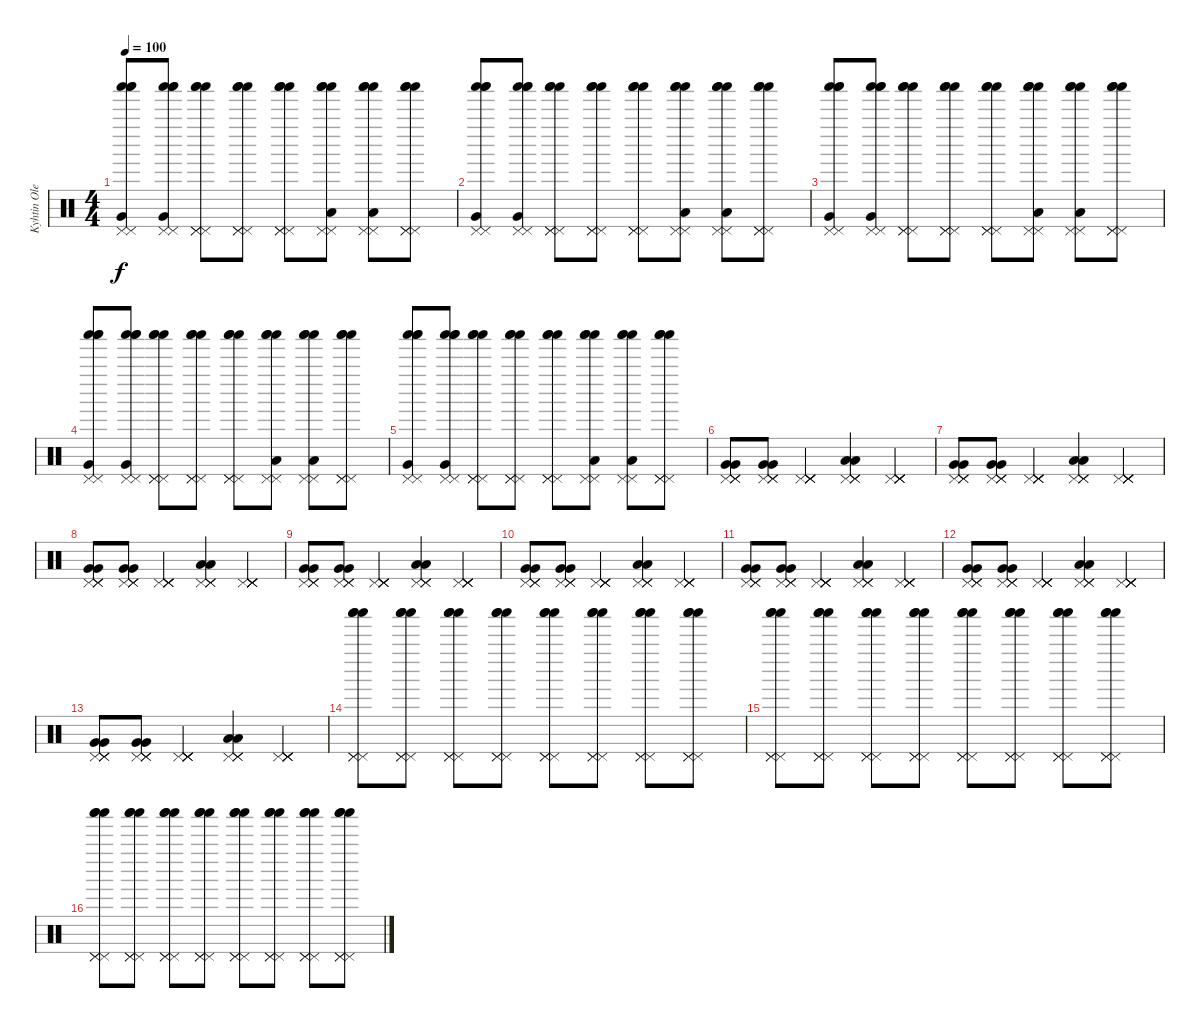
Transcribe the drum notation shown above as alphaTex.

\track ("Kyhtin Oleksandr" "Kyhtin Ole") {instrument percussion}
\staff {score}
\articulation defaults
\ts (4 4)
\tempo 100
\clef neutral
\ks c
("Pedal Hi-Hat (hit)" "Shaker (hit)" "Pedal Hi-Hat (hit)" "Shaker (hit)" "Very Low Tom (hit)" "Shaker (hit)").8{dy f} ("Pedal Hi-Hat (hit)" "Shaker (hit)" "Pedal Hi-Hat (hit)" "Shaker (hit)" "Very Low Tom (hit)" "Shaker (hit)").8 ("Pedal Hi-Hat (hit)" "Shaker (hit)" "Pedal Hi-Hat (hit)" "Shaker (hit)" "Pedal Hi-Hat (hit)" "Shaker (hit)").8 ("Pedal Hi-Hat (hit)" "Shaker (hit)" "Pedal Hi-Hat (hit)" "Shaker (hit)" "Pedal Hi-Hat (hit)" "Shaker (hit)").8 ("Pedal Hi-Hat (hit)" "Shaker (hit)" "Pedal Hi-Hat (hit)" "Shaker (hit)" "Pedal Hi-Hat (hit)" "Shaker (hit)").8 ("Pedal Hi-Hat (hit)" "Shaker (hit)" "Pedal Hi-Hat (hit)" "Shaker (hit)" "Low Floor Tom (hit)" "Shaker (hit)").8 ("Pedal Hi-Hat (hit)" "Shaker (hit)" "Pedal Hi-Hat (hit)" "Shaker (hit)" "Low Floor Tom (hit)" "Shaker (hit)").8 ("Pedal Hi-Hat (hit)" "Shaker (hit)" "Pedal Hi-Hat (hit)" "Shaker (hit)" "Pedal Hi-Hat (hit)" "Shaker (hit)").8 |
("Pedal Hi-Hat (hit)" "Shaker (hit)" "Pedal Hi-Hat (hit)" "Shaker (hit)" "Very Low Tom (hit)" "Shaker (hit)").8 ("Pedal Hi-Hat (hit)" "Shaker (hit)" "Pedal Hi-Hat (hit)" "Shaker (hit)" "Very Low Tom (hit)" "Shaker (hit)").8 ("Pedal Hi-Hat (hit)" "Shaker (hit)" "Pedal Hi-Hat (hit)" "Shaker (hit)" "Pedal Hi-Hat (hit)" "Shaker (hit)").8 ("Pedal Hi-Hat (hit)" "Shaker (hit)" "Pedal Hi-Hat (hit)" "Shaker (hit)" "Pedal Hi-Hat (hit)" "Shaker (hit)").8 ("Pedal Hi-Hat (hit)" "Shaker (hit)" "Pedal Hi-Hat (hit)" "Shaker (hit)" "Pedal Hi-Hat (hit)" "Shaker (hit)").8 ("Pedal Hi-Hat (hit)" "Shaker (hit)" "Pedal Hi-Hat (hit)" "Shaker (hit)" "Low Floor Tom (hit)" "Shaker (hit)").8 ("Pedal Hi-Hat (hit)" "Shaker (hit)" "Pedal Hi-Hat (hit)" "Shaker (hit)" "Low Floor Tom (hit)" "Shaker (hit)").8 ("Pedal Hi-Hat (hit)" "Shaker (hit)" "Pedal Hi-Hat (hit)" "Shaker (hit)" "Pedal Hi-Hat (hit)" "Shaker (hit)").8 |
("Pedal Hi-Hat (hit)" "Shaker (hit)" "Pedal Hi-Hat (hit)" "Shaker (hit)" "Very Low Tom (hit)" "Shaker (hit)").8 ("Pedal Hi-Hat (hit)" "Shaker (hit)" "Pedal Hi-Hat (hit)" "Shaker (hit)" "Very Low Tom (hit)" "Shaker (hit)").8 ("Pedal Hi-Hat (hit)" "Shaker (hit)" "Pedal Hi-Hat (hit)" "Shaker (hit)" "Pedal Hi-Hat (hit)" "Shaker (hit)").8 ("Pedal Hi-Hat (hit)" "Shaker (hit)" "Pedal Hi-Hat (hit)" "Shaker (hit)" "Pedal Hi-Hat (hit)" "Shaker (hit)").8 ("Pedal Hi-Hat (hit)" "Shaker (hit)" "Pedal Hi-Hat (hit)" "Shaker (hit)" "Pedal Hi-Hat (hit)" "Shaker (hit)").8 ("Pedal Hi-Hat (hit)" "Shaker (hit)" "Pedal Hi-Hat (hit)" "Shaker (hit)" "Low Floor Tom (hit)" "Shaker (hit)").8 ("Pedal Hi-Hat (hit)" "Shaker (hit)" "Pedal Hi-Hat (hit)" "Shaker (hit)" "Low Floor Tom (hit)" "Shaker (hit)").8 ("Pedal Hi-Hat (hit)" "Shaker (hit)" "Pedal Hi-Hat (hit)" "Shaker (hit)" "Pedal Hi-Hat (hit)" "Shaker (hit)").8 |
("Pedal Hi-Hat (hit)" "Shaker (hit)" "Pedal Hi-Hat (hit)" "Shaker (hit)" "Very Low Tom (hit)" "Shaker (hit)").8 ("Pedal Hi-Hat (hit)" "Shaker (hit)" "Pedal Hi-Hat (hit)" "Shaker (hit)" "Very Low Tom (hit)" "Shaker (hit)").8 ("Pedal Hi-Hat (hit)" "Shaker (hit)" "Pedal Hi-Hat (hit)" "Shaker (hit)" "Pedal Hi-Hat (hit)" "Shaker (hit)").8 ("Pedal Hi-Hat (hit)" "Shaker (hit)" "Pedal Hi-Hat (hit)" "Shaker (hit)" "Pedal Hi-Hat (hit)" "Shaker (hit)").8 ("Pedal Hi-Hat (hit)" "Shaker (hit)" "Pedal Hi-Hat (hit)" "Shaker (hit)" "Pedal Hi-Hat (hit)" "Shaker (hit)").8 ("Pedal Hi-Hat (hit)" "Shaker (hit)" "Pedal Hi-Hat (hit)" "Shaker (hit)" "Low Floor Tom (hit)" "Shaker (hit)").8 ("Pedal Hi-Hat (hit)" "Shaker (hit)" "Pedal Hi-Hat (hit)" "Shaker (hit)" "Low Floor Tom (hit)" "Shaker (hit)").8 ("Pedal Hi-Hat (hit)" "Shaker (hit)" "Pedal Hi-Hat (hit)" "Shaker (hit)" "Pedal Hi-Hat (hit)" "Shaker (hit)").8 |
("Pedal Hi-Hat (hit)" "Shaker (hit)" "Pedal Hi-Hat (hit)" "Shaker (hit)" "Very Low Tom (hit)" "Shaker (hit)").8 ("Pedal Hi-Hat (hit)" "Shaker (hit)" "Pedal Hi-Hat (hit)" "Shaker (hit)" "Very Low Tom (hit)" "Shaker (hit)").8 ("Pedal Hi-Hat (hit)" "Shaker (hit)" "Pedal Hi-Hat (hit)" "Shaker (hit)" "Pedal Hi-Hat (hit)" "Shaker (hit)").8 ("Pedal Hi-Hat (hit)" "Shaker (hit)" "Pedal Hi-Hat (hit)" "Shaker (hit)" "Pedal Hi-Hat (hit)" "Shaker (hit)").8 ("Pedal Hi-Hat (hit)" "Shaker (hit)" "Pedal Hi-Hat (hit)" "Shaker (hit)" "Pedal Hi-Hat (hit)" "Shaker (hit)").8 ("Pedal Hi-Hat (hit)" "Shaker (hit)" "Pedal Hi-Hat (hit)" "Shaker (hit)" "Low Floor Tom (hit)" "Shaker (hit)").8 ("Pedal Hi-Hat (hit)" "Shaker (hit)" "Pedal Hi-Hat (hit)" "Shaker (hit)" "Low Floor Tom (hit)" "Shaker (hit)").8 ("Pedal Hi-Hat (hit)" "Shaker (hit)" "Pedal Hi-Hat (hit)" "Shaker (hit)" "Pedal Hi-Hat (hit)" "Shaker (hit)").8 |
("Pedal Hi-Hat (hit)" "Pedal Hi-Hat (hit)" "Pedal Hi-Hat (hit)" "Pedal Hi-Hat (hit)" "Very Low Tom (hit)" "Very Low Tom (hit)").8 ("Pedal Hi-Hat (hit)" "Pedal Hi-Hat (hit)" "Pedal Hi-Hat (hit)" "Pedal Hi-Hat (hit)" "Very Low Tom (hit)" "Very Low Tom (hit)").8 ("Pedal Hi-Hat (hit)" "Pedal Hi-Hat (hit)" "Pedal Hi-Hat (hit)" "Pedal Hi-Hat (hit)" "Pedal Hi-Hat (hit)" "Pedal Hi-Hat (hit)").4 ("Pedal Hi-Hat (hit)" "Pedal Hi-Hat (hit)" "Pedal Hi-Hat (hit)" "Pedal Hi-Hat (hit)" "Low Floor Tom (hit)" "Low Floor Tom (hit)").4 ("Pedal Hi-Hat (hit)" "Pedal Hi-Hat (hit)" "Pedal Hi-Hat (hit)" "Pedal Hi-Hat (hit)" "Pedal Hi-Hat (hit)" "Pedal Hi-Hat (hit)").4 |
("Pedal Hi-Hat (hit)" "Pedal Hi-Hat (hit)" "Pedal Hi-Hat (hit)" "Pedal Hi-Hat (hit)" "Very Low Tom (hit)" "Very Low Tom (hit)").8 ("Pedal Hi-Hat (hit)" "Pedal Hi-Hat (hit)" "Pedal Hi-Hat (hit)" "Pedal Hi-Hat (hit)" "Very Low Tom (hit)" "Very Low Tom (hit)").8 ("Pedal Hi-Hat (hit)" "Pedal Hi-Hat (hit)" "Pedal Hi-Hat (hit)" "Pedal Hi-Hat (hit)" "Pedal Hi-Hat (hit)" "Pedal Hi-Hat (hit)").4 ("Pedal Hi-Hat (hit)" "Pedal Hi-Hat (hit)" "Pedal Hi-Hat (hit)" "Pedal Hi-Hat (hit)" "Low Floor Tom (hit)" "Low Floor Tom (hit)").4 ("Pedal Hi-Hat (hit)" "Pedal Hi-Hat (hit)" "Pedal Hi-Hat (hit)" "Pedal Hi-Hat (hit)" "Pedal Hi-Hat (hit)" "Pedal Hi-Hat (hit)").4 |
("Pedal Hi-Hat (hit)" "Pedal Hi-Hat (hit)" "Pedal Hi-Hat (hit)" "Pedal Hi-Hat (hit)" "Very Low Tom (hit)" "Very Low Tom (hit)").8 ("Pedal Hi-Hat (hit)" "Pedal Hi-Hat (hit)" "Pedal Hi-Hat (hit)" "Pedal Hi-Hat (hit)" "Very Low Tom (hit)" "Very Low Tom (hit)").8 ("Pedal Hi-Hat (hit)" "Pedal Hi-Hat (hit)" "Pedal Hi-Hat (hit)" "Pedal Hi-Hat (hit)" "Pedal Hi-Hat (hit)" "Pedal Hi-Hat (hit)").4 ("Pedal Hi-Hat (hit)" "Pedal Hi-Hat (hit)" "Pedal Hi-Hat (hit)" "Pedal Hi-Hat (hit)" "Low Floor Tom (hit)" "Low Floor Tom (hit)").4 ("Pedal Hi-Hat (hit)" "Pedal Hi-Hat (hit)" "Pedal Hi-Hat (hit)" "Pedal Hi-Hat (hit)" "Pedal Hi-Hat (hit)" "Pedal Hi-Hat (hit)").4 |
("Pedal Hi-Hat (hit)" "Pedal Hi-Hat (hit)" "Pedal Hi-Hat (hit)" "Pedal Hi-Hat (hit)" "Very Low Tom (hit)" "Very Low Tom (hit)").8 ("Pedal Hi-Hat (hit)" "Pedal Hi-Hat (hit)" "Pedal Hi-Hat (hit)" "Pedal Hi-Hat (hit)" "Very Low Tom (hit)" "Very Low Tom (hit)").8 ("Pedal Hi-Hat (hit)" "Pedal Hi-Hat (hit)" "Pedal Hi-Hat (hit)" "Pedal Hi-Hat (hit)" "Pedal Hi-Hat (hit)" "Pedal Hi-Hat (hit)").4 ("Pedal Hi-Hat (hit)" "Pedal Hi-Hat (hit)" "Pedal Hi-Hat (hit)" "Pedal Hi-Hat (hit)" "Low Floor Tom (hit)" "Low Floor Tom (hit)").4 ("Pedal Hi-Hat (hit)" "Pedal Hi-Hat (hit)" "Pedal Hi-Hat (hit)" "Pedal Hi-Hat (hit)" "Pedal Hi-Hat (hit)" "Pedal Hi-Hat (hit)").4 |
("Pedal Hi-Hat (hit)" "Pedal Hi-Hat (hit)" "Pedal Hi-Hat (hit)" "Pedal Hi-Hat (hit)" "Very Low Tom (hit)" "Very Low Tom (hit)").8 ("Pedal Hi-Hat (hit)" "Pedal Hi-Hat (hit)" "Pedal Hi-Hat (hit)" "Pedal Hi-Hat (hit)" "Very Low Tom (hit)" "Very Low Tom (hit)").8 ("Pedal Hi-Hat (hit)" "Pedal Hi-Hat (hit)" "Pedal Hi-Hat (hit)" "Pedal Hi-Hat (hit)" "Pedal Hi-Hat (hit)" "Pedal Hi-Hat (hit)").4 ("Pedal Hi-Hat (hit)" "Pedal Hi-Hat (hit)" "Pedal Hi-Hat (hit)" "Pedal Hi-Hat (hit)" "Low Floor Tom (hit)" "Low Floor Tom (hit)").4 ("Pedal Hi-Hat (hit)" "Pedal Hi-Hat (hit)" "Pedal Hi-Hat (hit)" "Pedal Hi-Hat (hit)" "Pedal Hi-Hat (hit)" "Pedal Hi-Hat (hit)").4 |
("Pedal Hi-Hat (hit)" "Pedal Hi-Hat (hit)" "Pedal Hi-Hat (hit)" "Pedal Hi-Hat (hit)" "Very Low Tom (hit)" "Very Low Tom (hit)").8 ("Pedal Hi-Hat (hit)" "Pedal Hi-Hat (hit)" "Pedal Hi-Hat (hit)" "Pedal Hi-Hat (hit)" "Very Low Tom (hit)" "Very Low Tom (hit)").8 ("Pedal Hi-Hat (hit)" "Pedal Hi-Hat (hit)" "Pedal Hi-Hat (hit)" "Pedal Hi-Hat (hit)" "Pedal Hi-Hat (hit)" "Pedal Hi-Hat (hit)").4 ("Pedal Hi-Hat (hit)" "Pedal Hi-Hat (hit)" "Pedal Hi-Hat (hit)" "Pedal Hi-Hat (hit)" "Low Floor Tom (hit)" "Low Floor Tom (hit)").4 ("Pedal Hi-Hat (hit)" "Pedal Hi-Hat (hit)" "Pedal Hi-Hat (hit)" "Pedal Hi-Hat (hit)" "Pedal Hi-Hat (hit)" "Pedal Hi-Hat (hit)").4 |
("Pedal Hi-Hat (hit)" "Pedal Hi-Hat (hit)" "Pedal Hi-Hat (hit)" "Pedal Hi-Hat (hit)" "Very Low Tom (hit)" "Very Low Tom (hit)").8 ("Pedal Hi-Hat (hit)" "Pedal Hi-Hat (hit)" "Pedal Hi-Hat (hit)" "Pedal Hi-Hat (hit)" "Very Low Tom (hit)" "Very Low Tom (hit)").8 ("Pedal Hi-Hat (hit)" "Pedal Hi-Hat (hit)" "Pedal Hi-Hat (hit)" "Pedal Hi-Hat (hit)" "Pedal Hi-Hat (hit)" "Pedal Hi-Hat (hit)").4 ("Pedal Hi-Hat (hit)" "Pedal Hi-Hat (hit)" "Pedal Hi-Hat (hit)" "Pedal Hi-Hat (hit)" "Low Floor Tom (hit)" "Low Floor Tom (hit)").4 ("Pedal Hi-Hat (hit)" "Pedal Hi-Hat (hit)" "Pedal Hi-Hat (hit)" "Pedal Hi-Hat (hit)" "Pedal Hi-Hat (hit)" "Pedal Hi-Hat (hit)").4 |
("Pedal Hi-Hat (hit)" "Pedal Hi-Hat (hit)" "Pedal Hi-Hat (hit)" "Pedal Hi-Hat (hit)" "Very Low Tom (hit)" "Very Low Tom (hit)").8 ("Pedal Hi-Hat (hit)" "Pedal Hi-Hat (hit)" "Pedal Hi-Hat (hit)" "Pedal Hi-Hat (hit)" "Very Low Tom (hit)" "Very Low Tom (hit)").8 ("Pedal Hi-Hat (hit)" "Pedal Hi-Hat (hit)" "Pedal Hi-Hat (hit)" "Pedal Hi-Hat (hit)" "Pedal Hi-Hat (hit)" "Pedal Hi-Hat (hit)").4 ("Pedal Hi-Hat (hit)" "Pedal Hi-Hat (hit)" "Pedal Hi-Hat (hit)" "Pedal Hi-Hat (hit)" "Low Floor Tom (hit)" "Low Floor Tom (hit)").4 ("Pedal Hi-Hat (hit)" "Pedal Hi-Hat (hit)" "Pedal Hi-Hat (hit)" "Pedal Hi-Hat (hit)" "Pedal Hi-Hat (hit)" "Pedal Hi-Hat (hit)").4 |
("Shaker (hit)" "Pedal Hi-Hat (hit)" "Shaker (hit)" "Pedal Hi-Hat (hit)" "Shaker (hit)" "Pedal Hi-Hat (hit)").8 ("Pedal Hi-Hat (hit)" "Shaker (hit)" "Pedal Hi-Hat (hit)" "Shaker (hit)" "Pedal Hi-Hat (hit)" "Shaker (hit)").8 ("Shaker (hit)" "Pedal Hi-Hat (hit)" "Shaker (hit)" "Pedal Hi-Hat (hit)" "Shaker (hit)" "Pedal Hi-Hat (hit)").8 ("Pedal Hi-Hat (hit)" "Shaker (hit)" "Pedal Hi-Hat (hit)" "Shaker (hit)" "Pedal Hi-Hat (hit)" "Shaker (hit)").8 ("Shaker (hit)" "Pedal Hi-Hat (hit)" "Shaker (hit)" "Pedal Hi-Hat (hit)" "Shaker (hit)" "Pedal Hi-Hat (hit)").8 ("Pedal Hi-Hat (hit)" "Shaker (hit)" "Pedal Hi-Hat (hit)" "Shaker (hit)" "Pedal Hi-Hat (hit)" "Shaker (hit)").8 ("Shaker (hit)" "Pedal Hi-Hat (hit)" "Shaker (hit)" "Pedal Hi-Hat (hit)" "Shaker (hit)" "Pedal Hi-Hat (hit)").8 ("Pedal Hi-Hat (hit)" "Shaker (hit)" "Pedal Hi-Hat (hit)" "Shaker (hit)" "Pedal Hi-Hat (hit)" "Shaker (hit)").8 |
("Shaker (hit)" "Pedal Hi-Hat (hit)" "Shaker (hit)" "Pedal Hi-Hat (hit)" "Shaker (hit)" "Pedal Hi-Hat (hit)").8 ("Pedal Hi-Hat (hit)" "Shaker (hit)" "Pedal Hi-Hat (hit)" "Shaker (hit)" "Pedal Hi-Hat (hit)" "Shaker (hit)").8 ("Shaker (hit)" "Pedal Hi-Hat (hit)" "Shaker (hit)" "Pedal Hi-Hat (hit)" "Shaker (hit)" "Pedal Hi-Hat (hit)").8 ("Pedal Hi-Hat (hit)" "Shaker (hit)" "Pedal Hi-Hat (hit)" "Shaker (hit)" "Pedal Hi-Hat (hit)" "Shaker (hit)").8 ("Shaker (hit)" "Pedal Hi-Hat (hit)" "Shaker (hit)" "Pedal Hi-Hat (hit)" "Shaker (hit)" "Pedal Hi-Hat (hit)").8 ("Pedal Hi-Hat (hit)" "Shaker (hit)" "Pedal Hi-Hat (hit)" "Shaker (hit)" "Pedal Hi-Hat (hit)" "Shaker (hit)").8 ("Shaker (hit)" "Pedal Hi-Hat (hit)" "Shaker (hit)" "Pedal Hi-Hat (hit)" "Shaker (hit)" "Pedal Hi-Hat (hit)").8 ("Pedal Hi-Hat (hit)" "Shaker (hit)" "Pedal Hi-Hat (hit)" "Shaker (hit)" "Pedal Hi-Hat (hit)" "Shaker (hit)").8 |
("Shaker (hit)" "Pedal Hi-Hat (hit)" "Shaker (hit)" "Pedal Hi-Hat (hit)" "Shaker (hit)" "Pedal Hi-Hat (hit)").8 ("Pedal Hi-Hat (hit)" "Shaker (hit)" "Pedal Hi-Hat (hit)" "Shaker (hit)" "Pedal Hi-Hat (hit)" "Shaker (hit)").8 ("Shaker (hit)" "Pedal Hi-Hat (hit)" "Shaker (hit)" "Pedal Hi-Hat (hit)" "Shaker (hit)" "Pedal Hi-Hat (hit)").8 ("Pedal Hi-Hat (hit)" "Shaker (hit)" "Pedal Hi-Hat (hit)" "Shaker (hit)" "Pedal Hi-Hat (hit)" "Shaker (hit)").8 ("Shaker (hit)" "Pedal Hi-Hat (hit)" "Shaker (hit)" "Pedal Hi-Hat (hit)" "Shaker (hit)" "Pedal Hi-Hat (hit)").8 ("Pedal Hi-Hat (hit)" "Shaker (hit)" "Pedal Hi-Hat (hit)" "Shaker (hit)" "Pedal Hi-Hat (hit)" "Shaker (hit)").8 ("Shaker (hit)" "Pedal Hi-Hat (hit)" "Shaker (hit)" "Pedal Hi-Hat (hit)" "Shaker (hit)" "Pedal Hi-Hat (hit)").8 ("Pedal Hi-Hat (hit)" "Shaker (hit)" "Pedal Hi-Hat (hit)" "Shaker (hit)" "Pedal Hi-Hat (hit)" "Shaker (hit)").8
